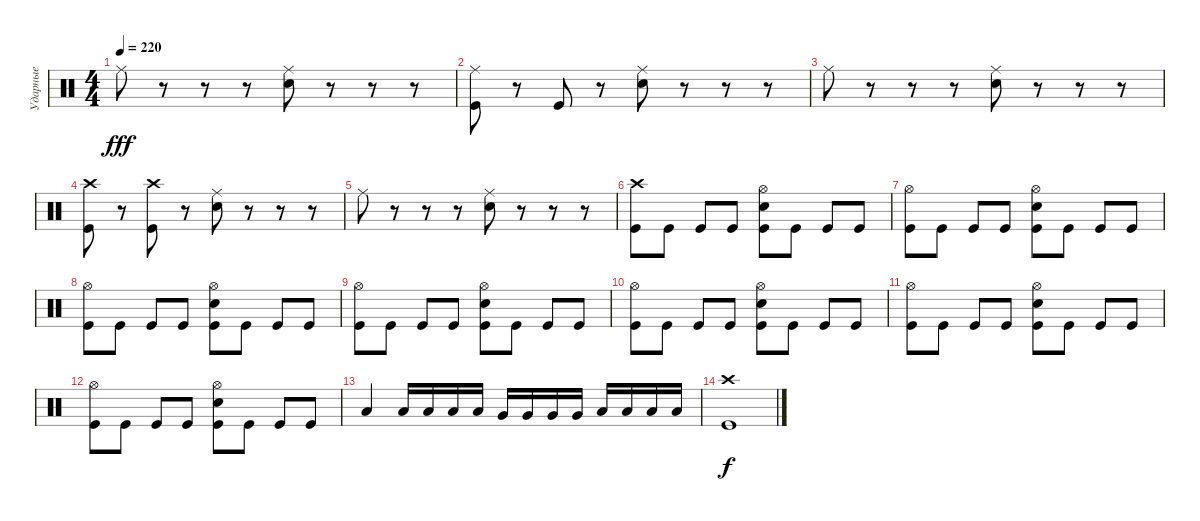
\track ("Ударные" "Ударные") {instrument percussion}
\staff {score}
\articulation defaults
\ts (4 4)
\tempo 220
\clef neutral
\ks c "Ride (middle)".8{dy fff}
r.8 r.8 r.8 ("Ride (middle)" "Snare (hit) 2").8 r.8 r.8 r.8 |
("Ride (middle)" "Kick (hit)").8 r.8 "Kick (hit)".8 r.8 ("Ride (middle)" "Snare (hit) 2").8 r.8 r.8 r.8 |
"Ride (middle)".8 r.8 r.8 r.8 ("Ride (middle)" "Snare (hit) 2").8 r.8 r.8 r.8 |
("Crash high (hit)" "Kick (hit)").8 r.8 ("Crash high (hit)" "Kick (hit)").8 r.8 ("Ride (middle)" "Snare (hit) 2").8 r.8 r.8 r.8 |
"Ride (middle)".8 r.8 r.8 r.8 ("Ride (middle)" "Snare (hit) 2").8 r.8 r.8 r.8 |
("Crash high (hit)" "Kick (hit)").8 "Kick (hit)".8 "Kick (hit)".8 "Kick (hit)".8 ("Hi-Hat (open)" "Snare (hit) 2" "Kick (hit)").8 "Kick (hit)".8 "Kick (hit)".8 "Kick (hit)".8 |
("Hi-Hat (open)" "Kick (hit)").8 "Kick (hit)".8 "Kick (hit)".8 "Kick (hit)".8 ("Hi-Hat (open)" "Snare (hit) 2" "Kick (hit)").8 "Kick (hit)".8 "Kick (hit)".8 "Kick (hit)".8 |
("Hi-Hat (open)" "Kick (hit)").8 "Kick (hit)".8 "Kick (hit)".8 "Kick (hit)".8 ("Hi-Hat (open)" "Snare (hit) 2" "Kick (hit)").8 "Kick (hit)".8 "Kick (hit)".8 "Kick (hit)".8 |
("Hi-Hat (open)" "Kick (hit)").8 "Kick (hit)".8 "Kick (hit)".8 "Kick (hit)".8 ("Hi-Hat (open)" "Snare (hit) 2" "Kick (hit)").8 "Kick (hit)".8 "Kick (hit)".8 "Kick (hit)".8 |
("Hi-Hat (open)" "Kick (hit)").8 "Kick (hit)".8 "Kick (hit)".8 "Kick (hit)".8 ("Hi-Hat (open)" "Snare (hit) 2" "Kick (hit)").8 "Kick (hit)".8 "Kick (hit)".8 "Kick (hit)".8 |
("Hi-Hat (open)" "Kick (hit)").8 "Kick (hit)".8 "Kick (hit)".8 "Kick (hit)".8 ("Hi-Hat (open)" "Snare (hit) 2" "Kick (hit)").8 "Kick (hit)".8 "Kick (hit)".8 "Kick (hit)".8 |
("Hi-Hat (open)" "Kick (hit)").8 "Kick (hit)".8 "Kick (hit)".8 "Kick (hit)".8 ("Hi-Hat (open)" "Snare (hit) 2" "Kick (hit)").8 "Kick (hit)".8 "Kick (hit)".8 "Kick (hit)".8 |
"Low Floor Tom (hit)".4 "Low Floor Tom (hit)".16 "Low Floor Tom (hit)".16 "Low Floor Tom (hit)".16 "Low Floor Tom (hit)".16 "Very Low Tom (hit)".16 "Very Low Tom (hit)".16 "Very Low Tom (hit)".16 "Very Low Tom (hit)".16 "Low Floor Tom (hit)".16 "Low Floor Tom (hit)".16 "Low Floor Tom (hit)".16 "Low Floor Tom (hit)".16 |
("Crash high (hit)" "Kick (hit)").1{dy f}
